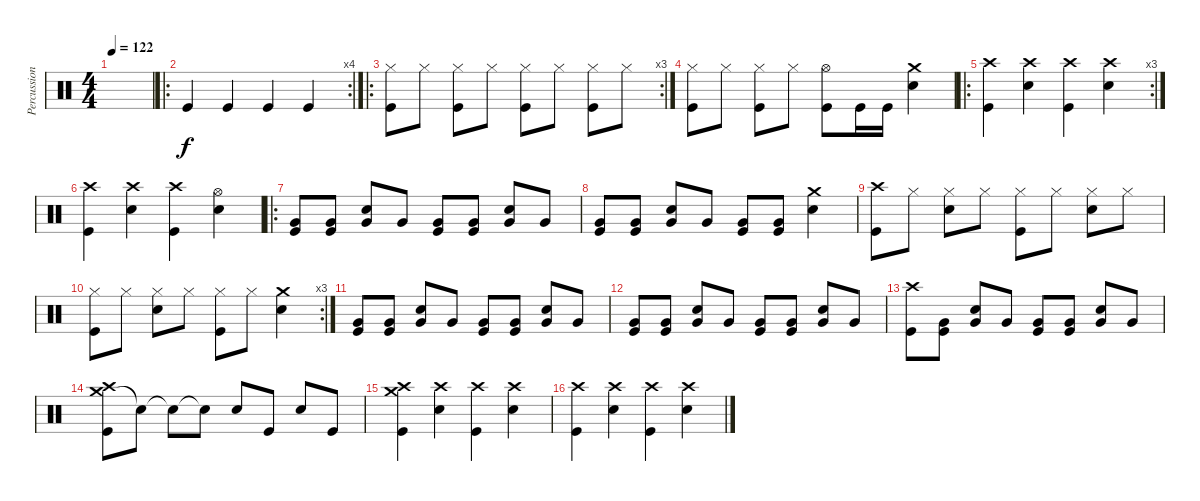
\track ("Percussion" "Percussion") {instrument percussion}
\staff {score}
\articulation defaults
\ts (4 4)
\tempo 122
\clef neutral
\ks c
|
\ro
\rc 4 "Kick (hit)".4 "Kick (hit)".4 "Kick (hit)".4 "Kick (hit)".4
|
\ro
\rc 3
("Hi-Hat (closed)" "Kick (hit)").8 "Hi-Hat (closed)".8 ("Hi-Hat (closed)" "Kick (hit)").8 "Hi-Hat (closed)".8 ("Hi-Hat (closed)" "Kick (hit)").8 "Hi-Hat (closed)".8 ("Hi-Hat (closed)" "Kick (hit)").8 "Hi-Hat (closed)".8 |
("Hi-Hat (closed)" "Kick (hit)").8 "Hi-Hat (closed)".8 ("Hi-Hat (closed)" "Kick (hit)").8 "Hi-Hat (closed)".8 ("Hi-Hat (open)" "Kick (hit)").8 "Kick (hit)".16 "Kick (hit)".16 ("Crash medium (hit)" "Snare (hit) 2").4 |
\ro
\rc 3
("Crash high (hit)" "Kick (hit)").4 ("Crash high (hit)" "Snare (hit) 2").4 ("Crash high (hit)" "Kick (hit)").4 ("Crash high (hit)" "Snare (hit) 2").4 |
("Crash high (hit)" "Kick (hit)").4 ("Crash high (hit)" "Snare (hit) 2").4 ("Crash high (hit)" "Kick (hit)").4 ("Hi-Hat (open)" "Snare (hit) 2").4 |
\ro
("Very Low Tom (hit)" "Kick (hit)").8 ("Very Low Tom (hit)" "Kick (hit)").8 ("Very Low Tom (hit)" "Snare (hit) 2").8 "Very Low Tom (hit)".8 ("Very Low Tom (hit)" "Kick (hit)").8 ("Very Low Tom (hit)" "Kick (hit)").8 ("Very Low Tom (hit)" "Snare (hit) 2").8 "Very Low Tom (hit)".8 |
("Very Low Tom (hit)" "Kick (hit)").8 ("Very Low Tom (hit)" "Kick (hit)").8 ("Very Low Tom (hit)" "Snare (hit) 2").8 "Very Low Tom (hit)".8 ("Very Low Tom (hit)" "Kick (hit)").8 ("Very Low Tom (hit)" "Kick (hit)").8 ("Crash medium (hit)" "Snare (hit) 2").4 |
("Crash high (hit)" "Kick (hit)").8 "Hi-Hat (closed)".8 ("Hi-Hat (closed)" "Snare (hit) 2").8 "Hi-Hat (closed)".8 ("Hi-Hat (closed)" "Kick (hit)").8 "Hi-Hat (closed)".8 ("Hi-Hat (closed)" "Snare (hit) 2").8 "Hi-Hat (closed)".8 |
\rc 3
("Hi-Hat (closed)" "Kick (hit)").8 "Hi-Hat (closed)".8 ("Hi-Hat (closed)" "Snare (hit) 2").8 "Hi-Hat (closed)".8 ("Hi-Hat (closed)" "Kick (hit)").8 "Hi-Hat (closed)".8 ("Crash medium (hit)" "Snare (hit) 2").4 |
("Very Low Tom (hit)" "Kick (hit)").8 ("Very Low Tom (hit)" "Kick (hit)").8 ("Very Low Tom (hit)" "Snare (hit) 2").8 "Very Low Tom (hit)".8 ("Very Low Tom (hit)" "Kick (hit)").8 ("Very Low Tom (hit)" "Kick (hit)").8 ("Very Low Tom (hit)" "Snare (hit) 2").8 "Very Low Tom (hit)".8 |
("Very Low Tom (hit)" "Kick (hit)").8 ("Very Low Tom (hit)" "Kick (hit)").8 ("Very Low Tom (hit)" "Snare (hit) 2").8 "Very Low Tom (hit)".8 ("Very Low Tom (hit)" "Kick (hit)").8 ("Very Low Tom (hit)" "Kick (hit)").8 ("Very Low Tom (hit)" "Snare (hit) 2").8 "Very Low Tom (hit)".8 |
("Crash high (hit)" "Kick (hit)").8 ("Very Low Tom (hit)" "Kick (hit)").8 ("Very Low Tom (hit)" "Snare (hit) 2").8 "Very Low Tom (hit)".8 ("Very Low Tom (hit)" "Kick (hit)").8 ("Very Low Tom (hit)" "Kick (hit)").8 ("Very Low Tom (hit)" "Snare (hit) 2").8 "Very Low Tom (hit)".8 |
("Crash medium (hit)" "Crash high (hit)" "Kick (hit)").8 "Snare (hit)"{t}.8 "Snare (hit)"{t}.8 "Snare (hit)"{t}.8 "Snare (hit) 2".8 "Kick (hit)".8 "Snare (hit) 2".8 "Kick (hit)".8 |
("Crash high (hit)" "Crash medium (hit)" "Kick (hit)").4 ("Crash high (hit)" "Snare (hit) 2").4 ("Crash high (hit)" "Kick (hit)").4 ("Crash high (hit)" "Snare (hit) 2").4 |
("Crash high (hit)" "Kick (hit)").4 ("Crash high (hit)" "Snare (hit) 2").4 ("Crash high (hit)" "Kick (hit)").4 ("Crash high (hit)" "Snare (hit) 2").4
